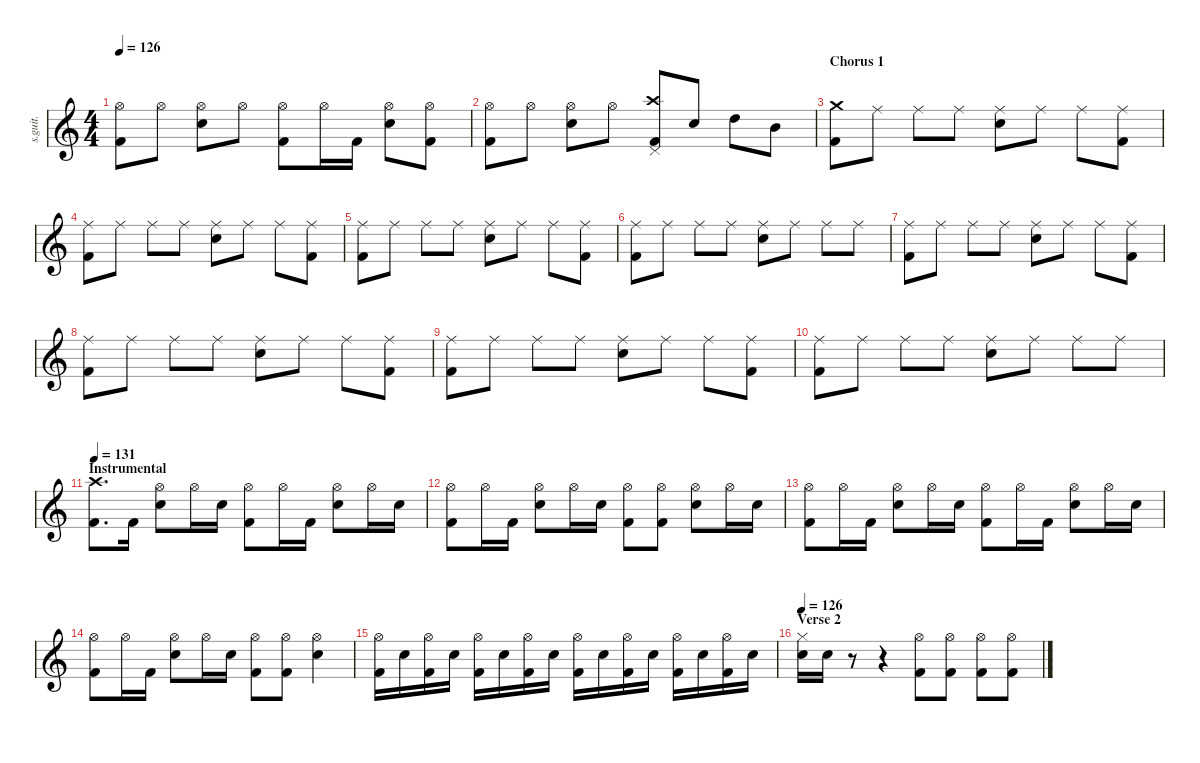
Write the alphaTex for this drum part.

\defaultSystemsLayout 4
\hideDynamics
\bracketExtendMode nobrackets
\track ("John Dolmayan" "s.guit.") {instrument percussion}
\staff {score}
\articulation defaults
\ts (4 4)
\tempo 126
\clef g2
\ks c
("Hi-Hat (open)" "Kick (hit) 2").8{lyrics (0 "") lyrics (1 "") lyrics (2 "") lyrics (3 "") lyrics (4 "") dy f} "Hi-Hat (open)".8{lyrics (0 "") lyrics (1 "") lyrics (2 "") lyrics (3 "") lyrics (4 "")} ("Hi-Hat (open)" "Snare (hit) 2").8{lyrics (0 "") lyrics (1 "") lyrics (2 "") lyrics (3 "") lyrics (4 "")} "Hi-Hat (open)".8{lyrics (0 "") lyrics (1 "") lyrics (2 "") lyrics (3 "") lyrics (4 "")} ("Hi-Hat (open)" "Kick (hit) 2").8{lyrics (0 "") lyrics (1 "") lyrics (2 "") lyrics (3 "") lyrics (4 "")} "Hi-Hat (open)".16{lyrics (0 "") lyrics (1 "") lyrics (2 "") lyrics (3 "") lyrics (4 "")} "Kick (hit) 2".16{lyrics (0 "") lyrics (1 "") lyrics (2 "") lyrics (3 "") lyrics (4 "")} ("Hi-Hat (open)" "Snare (hit) 2").8{lyrics (0 "") lyrics (1 "") lyrics (2 "") lyrics (3 "") lyrics (4 "")} ("Hi-Hat (open)" "Kick (hit) 2").8{lyrics (0 "") lyrics (1 "") lyrics (2 "") lyrics (3 "") lyrics (4 "")} |
("Hi-Hat (open)" "Kick (hit) 2").8{lyrics (0 "") lyrics (1 "") lyrics (2 "") lyrics (3 "") lyrics (4 "")} "Hi-Hat (open)".8{lyrics (0 "") lyrics (1 "") lyrics (2 "") lyrics (3 "") lyrics (4 "")} ("Hi-Hat (open)" "Snare (hit) 2").8{lyrics (0 "") lyrics (1 "") lyrics (2 "") lyrics (3 "") lyrics (4 "")} "Hi-Hat (open)".8{lyrics (0 "") lyrics (1 "") lyrics (2 "") lyrics (3 "") lyrics (4 "")} ("Crash high (hit)" "Kick (hit) 2" "Pedal Hi-Hat (hit)").8{lyrics (0 "") lyrics (1 "") lyrics (2 "") lyrics (3 "") lyrics (4 "")} "Snare (hit) 2".8{lyrics (0 "") lyrics (1 "") lyrics (2 "") lyrics (3 "") lyrics (4 "")} "High Tom (hit)".8{lyrics (0 "") lyrics (1 "") lyrics (2 "") lyrics (3 "") lyrics (4 "")} "Mid Tom (hit)".8{lyrics (0 "") lyrics (1 "") lyrics (2 "") lyrics (3 "") lyrics (4 "")} |
\section ("" "Chorus 1")
("Crash medium (hit)" "Kick (hit) 2").8{lyrics (0 "") lyrics (1 "") lyrics (2 "") lyrics (3 "") lyrics (4 "")} "Ride (middle)".8{lyrics (0 "") lyrics (1 "") lyrics (2 "") lyrics (3 "") lyrics (4 "")} "Ride (middle)".8{lyrics (0 "") lyrics (1 "") lyrics (2 "") lyrics (3 "") lyrics (4 "")} "Ride (middle)".8{lyrics (0 "") lyrics (1 "") lyrics (2 "") lyrics (3 "") lyrics (4 "")} ("Ride (middle)" "Snare (hit) 2").8{lyrics (0 "") lyrics (1 "") lyrics (2 "") lyrics (3 "") lyrics (4 "")} "Ride (middle)".8{lyrics (0 "") lyrics (1 "") lyrics (2 "") lyrics (3 "") lyrics (4 "")} "Ride (middle)".8{lyrics (0 "") lyrics (1 "") lyrics (2 "") lyrics (3 "") lyrics (4 "")} ("Ride (middle)" "Kick (hit) 2").8{lyrics (0 "") lyrics (1 "") lyrics (2 "") lyrics (3 "") lyrics (4 "")} |
("Ride (middle)" "Kick (hit) 2").8{lyrics (0 "") lyrics (1 "") lyrics (2 "") lyrics (3 "") lyrics (4 "")} "Ride (middle)".8{lyrics (0 "") lyrics (1 "") lyrics (2 "") lyrics (3 "") lyrics (4 "")} "Ride (middle)".8{lyrics (0 "") lyrics (1 "") lyrics (2 "") lyrics (3 "") lyrics (4 "")} "Ride (middle)".8{lyrics (0 "") lyrics (1 "") lyrics (2 "") lyrics (3 "") lyrics (4 "")} ("Ride (middle)" "Snare (hit) 2").8{lyrics (0 "") lyrics (1 "") lyrics (2 "") lyrics (3 "") lyrics (4 "")} "Ride (middle)".8{lyrics (0 "") lyrics (1 "") lyrics (2 "") lyrics (3 "") lyrics (4 "")} "Ride (middle)".8{lyrics (0 "") lyrics (1 "") lyrics (2 "") lyrics (3 "") lyrics (4 "")} ("Ride (middle)" "Kick (hit) 2").8{lyrics (0 "") lyrics (1 "") lyrics (2 "") lyrics (3 "") lyrics (4 "")} |
("Ride (middle)" "Kick (hit) 2").8{lyrics (0 "") lyrics (1 "") lyrics (2 "") lyrics (3 "") lyrics (4 "")} "Ride (middle)".8{lyrics (0 "") lyrics (1 "") lyrics (2 "") lyrics (3 "") lyrics (4 "")} "Ride (middle)".8{lyrics (0 "") lyrics (1 "") lyrics (2 "") lyrics (3 "") lyrics (4 "")} "Ride (middle)".8{lyrics (0 "") lyrics (1 "") lyrics (2 "") lyrics (3 "") lyrics (4 "")} ("Ride (middle)" "Snare (hit) 2").8{lyrics (0 "") lyrics (1 "") lyrics (2 "") lyrics (3 "") lyrics (4 "")} "Ride (middle)".8{lyrics (0 "") lyrics (1 "") lyrics (2 "") lyrics (3 "") lyrics (4 "")} "Ride (middle)".8{lyrics (0 "") lyrics (1 "") lyrics (2 "") lyrics (3 "") lyrics (4 "")} ("Ride (middle)" "Kick (hit) 2").8{lyrics (0 "") lyrics (1 "") lyrics (2 "") lyrics (3 "") lyrics (4 "")} |
("Ride (middle)" "Kick (hit) 2").8{lyrics (0 "") lyrics (1 "") lyrics (2 "") lyrics (3 "") lyrics (4 "")} "Ride (middle)".8{lyrics (0 "") lyrics (1 "") lyrics (2 "") lyrics (3 "") lyrics (4 "")} "Ride (middle)".8{lyrics (0 "") lyrics (1 "") lyrics (2 "") lyrics (3 "") lyrics (4 "")} "Ride (middle)".8{lyrics (0 "") lyrics (1 "") lyrics (2 "") lyrics (3 "") lyrics (4 "")} ("Ride (middle)" "Snare (hit) 2").8{lyrics (0 "") lyrics (1 "") lyrics (2 "") lyrics (3 "") lyrics (4 "")} "Ride (middle)".8{lyrics (0 "") lyrics (1 "") lyrics (2 "") lyrics (3 "") lyrics (4 "")} "Ride (middle)".8{lyrics (0 "") lyrics (1 "") lyrics (2 "") lyrics (3 "") lyrics (4 "")} "Ride (middle)".8{lyrics (0 "") lyrics (1 "") lyrics (2 "") lyrics (3 "") lyrics (4 "")} |
("Ride (middle)" "Kick (hit) 2").8{lyrics (0 "") lyrics (1 "") lyrics (2 "") lyrics (3 "") lyrics (4 "")} "Ride (middle)".8{lyrics (0 "") lyrics (1 "") lyrics (2 "") lyrics (3 "") lyrics (4 "")} "Ride (middle)".8{lyrics (0 "") lyrics (1 "") lyrics (2 "") lyrics (3 "") lyrics (4 "")} "Ride (middle)".8{lyrics (0 "") lyrics (1 "") lyrics (2 "") lyrics (3 "") lyrics (4 "")} ("Ride (middle)" "Snare (hit) 2").8{lyrics (0 "") lyrics (1 "") lyrics (2 "") lyrics (3 "") lyrics (4 "")} "Ride (middle)".8{lyrics (0 "") lyrics (1 "") lyrics (2 "") lyrics (3 "") lyrics (4 "")} "Ride (middle)".8{lyrics (0 "") lyrics (1 "") lyrics (2 "") lyrics (3 "") lyrics (4 "")} ("Ride (middle)" "Kick (hit) 2").8{lyrics (0 "") lyrics (1 "") lyrics (2 "") lyrics (3 "") lyrics (4 "")} |
("Ride (middle)" "Kick (hit) 2").8{lyrics (0 "") lyrics (1 "") lyrics (2 "") lyrics (3 "") lyrics (4 "")} "Ride (middle)".8{lyrics (0 "") lyrics (1 "") lyrics (2 "") lyrics (3 "") lyrics (4 "")} "Ride (middle)".8{lyrics (0 "") lyrics (1 "") lyrics (2 "") lyrics (3 "") lyrics (4 "")} "Ride (middle)".8{lyrics (0 "") lyrics (1 "") lyrics (2 "") lyrics (3 "") lyrics (4 "")} ("Ride (middle)" "Snare (hit) 2").8{lyrics (0 "") lyrics (1 "") lyrics (2 "") lyrics (3 "") lyrics (4 "")} "Ride (middle)".8{lyrics (0 "") lyrics (1 "") lyrics (2 "") lyrics (3 "") lyrics (4 "")} "Ride (middle)".8{lyrics (0 "") lyrics (1 "") lyrics (2 "") lyrics (3 "") lyrics (4 "")} ("Ride (middle)" "Kick (hit) 2").8{lyrics (0 "") lyrics (1 "") lyrics (2 "") lyrics (3 "") lyrics (4 "")} |
("Ride (middle)" "Kick (hit) 2").8{lyrics (0 "") lyrics (1 "") lyrics (2 "") lyrics (3 "") lyrics (4 "")} "Ride (middle)".8{lyrics (0 "") lyrics (1 "") lyrics (2 "") lyrics (3 "") lyrics (4 "")} "Ride (middle)".8{lyrics (0 "") lyrics (1 "") lyrics (2 "") lyrics (3 "") lyrics (4 "")} "Ride (middle)".8{lyrics (0 "") lyrics (1 "") lyrics (2 "") lyrics (3 "") lyrics (4 "")} ("Ride (middle)" "Snare (hit) 2").8{lyrics (0 "") lyrics (1 "") lyrics (2 "") lyrics (3 "") lyrics (4 "")} "Ride (middle)".8{lyrics (0 "") lyrics (1 "") lyrics (2 "") lyrics (3 "") lyrics (4 "")} "Ride (middle)".8{lyrics (0 "") lyrics (1 "") lyrics (2 "") lyrics (3 "") lyrics (4 "")} ("Ride (middle)" "Kick (hit) 2").8{lyrics (0 "") lyrics (1 "") lyrics (2 "") lyrics (3 "") lyrics (4 "")} |
("Ride (middle)" "Kick (hit) 2").8{lyrics (0 "") lyrics (1 "") lyrics (2 "") lyrics (3 "") lyrics (4 "")} "Ride (middle)".8{lyrics (0 "") lyrics (1 "") lyrics (2 "") lyrics (3 "") lyrics (4 "")} "Ride (middle)".8{lyrics (0 "") lyrics (1 "") lyrics (2 "") lyrics (3 "") lyrics (4 "")} "Ride (middle)".8{lyrics (0 "") lyrics (1 "") lyrics (2 "") lyrics (3 "") lyrics (4 "")} ("Ride (middle)" "Snare (hit) 2").8{lyrics (0 "") lyrics (1 "") lyrics (2 "") lyrics (3 "") lyrics (4 "")} "Ride (middle)".8{lyrics (0 "") lyrics (1 "") lyrics (2 "") lyrics (3 "") lyrics (4 "")} "Ride (middle)".8{lyrics (0 "") lyrics (1 "") lyrics (2 "") lyrics (3 "") lyrics (4 "")} "Ride (middle)".8{lyrics (0 "") lyrics (1 "") lyrics (2 "") lyrics (3 "") lyrics (4 "")} |
\section ("" "Instrumental")
\tempo 131
("Crash high (hit)" "Kick (hit) 2").8{d lyrics (0 "") lyrics (1 "") lyrics (2 "") lyrics (3 "") lyrics (4 "")} "Kick (hit) 2".16{lyrics (0 "") lyrics (1 "") lyrics (2 "") lyrics (3 "") lyrics (4 "")} ("Hi-Hat (open)" "Snare (hit) 2").8{lyrics (0 "") lyrics (1 "") lyrics (2 "") lyrics (3 "") lyrics (4 "")} "Hi-Hat (open)".16{lyrics (0 "") lyrics (1 "") lyrics (2 "") lyrics (3 "") lyrics (4 "")} "Snare (hit) 2".16{lyrics (0 "") lyrics (1 "") lyrics (2 "") lyrics (3 "") lyrics (4 "")} ("Hi-Hat (open)" "Kick (hit) 2").8{lyrics (0 "") lyrics (1 "") lyrics (2 "") lyrics (3 "") lyrics (4 "")} "Hi-Hat (open)".16{lyrics (0 "") lyrics (1 "") lyrics (2 "") lyrics (3 "") lyrics (4 "")} "Kick (hit) 2".16{lyrics (0 "") lyrics (1 "") lyrics (2 "") lyrics (3 "") lyrics (4 "")} ("Hi-Hat (open)" "Snare (hit) 2").8{lyrics (0 "") lyrics (1 "") lyrics (2 "") lyrics (3 "") lyrics (4 "")} "Hi-Hat (open)".16{lyrics (0 "") lyrics (1 "") lyrics (2 "") lyrics (3 "") lyrics (4 "")} "Snare (hit) 2".16{lyrics (0 "") lyrics (1 "") lyrics (2 "") lyrics (3 "") lyrics (4 "")} |
("Hi-Hat (open)" "Kick (hit) 2").8{lyrics (0 "") lyrics (1 "") lyrics (2 "") lyrics (3 "") lyrics (4 "")} "Hi-Hat (open)".16{lyrics (0 "") lyrics (1 "") lyrics (2 "") lyrics (3 "") lyrics (4 "")} "Kick (hit) 2".16{lyrics (0 "") lyrics (1 "") lyrics (2 "") lyrics (3 "") lyrics (4 "")} ("Hi-Hat (open)" "Snare (hit) 2").8{lyrics (0 "") lyrics (1 "") lyrics (2 "") lyrics (3 "") lyrics (4 "")} "Hi-Hat (open)".16{lyrics (0 "") lyrics (1 "") lyrics (2 "") lyrics (3 "") lyrics (4 "")} "Snare (hit) 2".16{lyrics (0 "") lyrics (1 "") lyrics (2 "") lyrics (3 "") lyrics (4 "")} ("Hi-Hat (open)" "Kick (hit) 2").8{lyrics (0 "") lyrics (1 "") lyrics (2 "") lyrics (3 "") lyrics (4 "")} ("Hi-Hat (open)" "Kick (hit) 2").8{lyrics (0 "") lyrics (1 "") lyrics (2 "") lyrics (3 "") lyrics (4 "")} ("Hi-Hat (open)" "Snare (hit) 2").8{lyrics (0 "") lyrics (1 "") lyrics (2 "") lyrics (3 "") lyrics (4 "")} "Hi-Hat (open)".16{lyrics (0 "") lyrics (1 "") lyrics (2 "") lyrics (3 "") lyrics (4 "")} "Snare (hit) 2".16{lyrics (0 "") lyrics (1 "") lyrics (2 "") lyrics (3 "") lyrics (4 "")} |
("Hi-Hat (open)" "Kick (hit) 2").8{lyrics (0 "") lyrics (1 "") lyrics (2 "") lyrics (3 "") lyrics (4 "")} "Hi-Hat (open)".16{lyrics (0 "") lyrics (1 "") lyrics (2 "") lyrics (3 "") lyrics (4 "")} "Kick (hit) 2".16{lyrics (0 "") lyrics (1 "") lyrics (2 "") lyrics (3 "") lyrics (4 "")} ("Hi-Hat (open)" "Snare (hit) 2").8{lyrics (0 "") lyrics (1 "") lyrics (2 "") lyrics (3 "") lyrics (4 "")} "Hi-Hat (open)".16{lyrics (0 "") lyrics (1 "") lyrics (2 "") lyrics (3 "") lyrics (4 "")} "Snare (hit) 2".16{lyrics (0 "") lyrics (1 "") lyrics (2 "") lyrics (3 "") lyrics (4 "")} ("Hi-Hat (open)" "Kick (hit) 2").8{lyrics (0 "") lyrics (1 "") lyrics (2 "") lyrics (3 "") lyrics (4 "")} "Hi-Hat (open)".16{lyrics (0 "") lyrics (1 "") lyrics (2 "") lyrics (3 "") lyrics (4 "")} "Kick (hit) 2".16{lyrics (0 "") lyrics (1 "") lyrics (2 "") lyrics (3 "") lyrics (4 "")} ("Hi-Hat (open)" "Snare (hit) 2").8{lyrics (0 "") lyrics (1 "") lyrics (2 "") lyrics (3 "") lyrics (4 "")} "Hi-Hat (open)".16{lyrics (0 "") lyrics (1 "") lyrics (2 "") lyrics (3 "") lyrics (4 "")} "Snare (hit) 2".16{lyrics (0 "") lyrics (1 "") lyrics (2 "") lyrics (3 "") lyrics (4 "")} |
("Hi-Hat (open)" "Kick (hit) 2").8{lyrics (0 "") lyrics (1 "") lyrics (2 "") lyrics (3 "") lyrics (4 "")} "Hi-Hat (open)".16{lyrics (0 "") lyrics (1 "") lyrics (2 "") lyrics (3 "") lyrics (4 "")} "Kick (hit) 2".16{lyrics (0 "") lyrics (1 "") lyrics (2 "") lyrics (3 "") lyrics (4 "")} ("Hi-Hat (open)" "Snare (hit) 2").8{lyrics (0 "") lyrics (1 "") lyrics (2 "") lyrics (3 "") lyrics (4 "")} "Hi-Hat (open)".16{lyrics (0 "") lyrics (1 "") lyrics (2 "") lyrics (3 "") lyrics (4 "")} "Snare (hit) 2".16{lyrics (0 "") lyrics (1 "") lyrics (2 "") lyrics (3 "") lyrics (4 "")} ("Hi-Hat (open)" "Kick (hit) 2").8{lyrics (0 "") lyrics (1 "") lyrics (2 "") lyrics (3 "") lyrics (4 "")} ("Hi-Hat (open)" "Kick (hit) 2").8{lyrics (0 "") lyrics (1 "") lyrics (2 "") lyrics (3 "") lyrics (4 "")} ("Hi-Hat (open)" "Snare (hit) 2").4{lyrics (0 "") lyrics (1 "") lyrics (2 "") lyrics (3 "") lyrics (4 "")} |
("Hi-Hat (open)" "Kick (hit) 2").16{lyrics (0 "") lyrics (1 "") lyrics (2 "") lyrics (3 "") lyrics (4 "")} "Snare (hit) 2".16{lyrics (0 "") lyrics (1 "") lyrics (2 "") lyrics (3 "") lyrics (4 "")} ("Hi-Hat (open)" "Kick (hit) 2").16{lyrics (0 "") lyrics (1 "") lyrics (2 "") lyrics (3 "") lyrics (4 "")} "Snare (hit) 2".16{lyrics (0 "") lyrics (1 "") lyrics (2 "") lyrics (3 "") lyrics (4 "")} ("Hi-Hat (open)" "Kick (hit) 2").16{lyrics (0 "") lyrics (1 "") lyrics (2 "") lyrics (3 "") lyrics (4 "")} "Snare (hit) 2".16{lyrics (0 "") lyrics (1 "") lyrics (2 "") lyrics (3 "") lyrics (4 "")} ("Hi-Hat (open)" "Kick (hit) 2").16{lyrics (0 "") lyrics (1 "") lyrics (2 "") lyrics (3 "") lyrics (4 "")} "Snare (hit) 2".16{lyrics (0 "") lyrics (1 "") lyrics (2 "") lyrics (3 "") lyrics (4 "")} ("Hi-Hat (open)" "Kick (hit) 2").16{lyrics (0 "") lyrics (1 "") lyrics (2 "") lyrics (3 "") lyrics (4 "")} "Snare (hit) 2".16{lyrics (0 "") lyrics (1 "") lyrics (2 "") lyrics (3 "") lyrics (4 "")} ("Hi-Hat (open)" "Kick (hit) 2").16{lyrics (0 "") lyrics (1 "") lyrics (2 "") lyrics (3 "") lyrics (4 "")} "Snare (hit) 2".16{lyrics (0 "") lyrics (1 "") lyrics (2 "") lyrics (3 "") lyrics (4 "")} ("Hi-Hat (open)" "Kick (hit) 2").16{lyrics (0 "") lyrics (1 "") lyrics (2 "") lyrics (3 "") lyrics (4 "")} "Snare (hit) 2".16{lyrics (0 "") lyrics (1 "") lyrics (2 "") lyrics (3 "") lyrics (4 "")} ("Hi-Hat (open)" "Kick (hit) 2").16{lyrics (0 "") lyrics (1 "") lyrics (2 "") lyrics (3 "") lyrics (4 "")} "Snare (hit) 2".16{lyrics (0 "") lyrics (1 "") lyrics (2 "") lyrics (3 "") lyrics (4 "")} |
\section ("" "Verse 2")
\tempo 126
("Snare (hit) 2" "Hi-Hat (closed)").16{lyrics (0 "") lyrics (1 "") lyrics (2 "") lyrics (3 "") lyrics (4 "")} "Snare (hit) 2".16{lyrics (0 "") lyrics (1 "") lyrics (2 "") lyrics (3 "") lyrics (4 "")} r.8 r.4 ("Hi-Hat (open)" "Kick (hit) 2").8{lyrics (0 "") lyrics (1 "") lyrics (2 "") lyrics (3 "") lyrics (4 "")} ("Hi-Hat (open)" "Kick (hit) 2").8{lyrics (0 "") lyrics (1 "") lyrics (2 "") lyrics (3 "") lyrics (4 "")} ("Hi-Hat (open)" "Kick (hit) 2").8{lyrics (0 "") lyrics (1 "") lyrics (2 "") lyrics (3 "") lyrics (4 "")} ("Hi-Hat (open)" "Kick (hit) 2").8{lyrics (0 "") lyrics (1 "") lyrics (2 "") lyrics (3 "") lyrics (4 "")}
